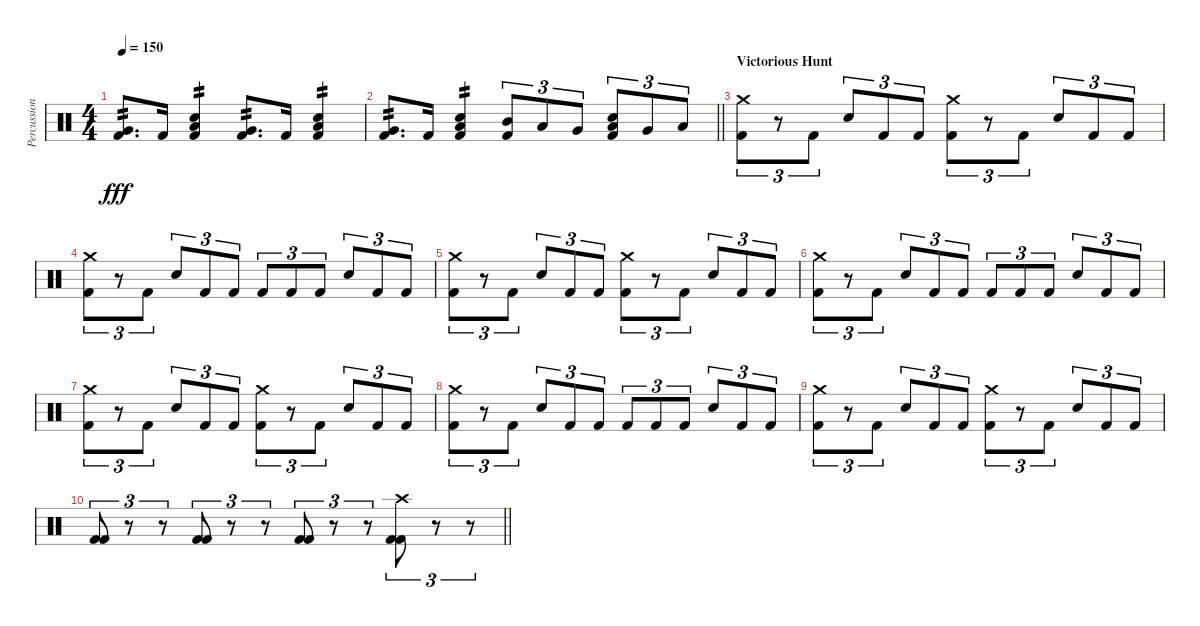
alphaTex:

\track ("Percussion" "Percussion") {instrument percussion}
\staff {score}
\articulation defaults
\ts (4 4)
\tempo 150
\clef neutral
\ks c
("Very Low Tom (hit)" "Kick (hit) 2").8{d tp 2 dy fff} "Kick (hit) 2".16 ("Low Tom (hit)" "Snare (hit) 2" "Kick (hit) 2").4{tp 2} ("Very Low Tom (hit)" "Kick (hit) 2").8{d tp 2} "Kick (hit) 2".16 ("Low Tom (hit)" "Snare (hit) 2" "Kick (hit) 2").4{tp 2} |
\barLineRight lightlight
("Very Low Tom (hit)" "Kick (hit) 2").8{d tp 2} "Kick (hit) 2".16 ("Low Tom (hit)" "Snare (hit) 2" "Kick (hit) 2").4{tp 2} ("Mid Tom (hit)" "Kick (hit) 2").8{tu (3 2)} "Low Tom (hit)".8{tu (3 2)} "Very Low Tom (hit)".8{tu (3 2)} ("Electric Snare (hit)" "Low Floor Tom (hit)" "Kick (hit) 2").8{tu (3 2)} "Very Low Tom (hit)".8{tu (3 2)} "Low Floor Tom (hit)".8{tu (3 2)} |
\section ("" "Victorious Hunt")
("Crash medium (hit)" "Kick (hit) 2").8{tu (3 2)} r.8{tu (3 2)} "Kick (hit) 2".8{tu (3 2)} "Snare (hit) 2".8{tu (3 2)} "Kick (hit) 2".8{tu (3 2)} "Kick (hit) 2".8{tu (3 2)} ("Crash medium (hit)" "Kick (hit) 2").8{tu (3 2)} r.8{tu (3 2)} "Kick (hit) 2".8{tu (3 2)} "Snare (hit) 2".8{tu (3 2)} "Kick (hit) 2".8{tu (3 2)} "Kick (hit) 2".8{tu (3 2)} |
("Crash medium (hit)" "Kick (hit) 2").8{tu (3 2)} r.8{tu (3 2)} "Kick (hit) 2".8{tu (3 2)} "Snare (hit) 2".8{tu (3 2)} "Kick (hit) 2".8{tu (3 2)} "Kick (hit) 2".8{tu (3 2)} "Kick (hit) 2".8{tu (3 2)} "Kick (hit) 2".8{tu (3 2)} "Kick (hit) 2".8{tu (3 2)} "Snare (hit) 2".8{tu (3 2)} "Kick (hit) 2".8{tu (3 2)} "Kick (hit) 2".8{tu (3 2)} |
("Crash medium (hit)" "Kick (hit) 2").8{tu (3 2)} r.8{tu (3 2)} "Kick (hit) 2".8{tu (3 2)} "Snare (hit) 2".8{tu (3 2)} "Kick (hit) 2".8{tu (3 2)} "Kick (hit) 2".8{tu (3 2)} ("Crash medium (hit)" "Kick (hit) 2").8{tu (3 2)} r.8{tu (3 2)} "Kick (hit) 2".8{tu (3 2)} "Snare (hit) 2".8{tu (3 2)} "Kick (hit) 2".8{tu (3 2)} "Kick (hit) 2".8{tu (3 2)} |
("Crash medium (hit)" "Kick (hit) 2").8{tu (3 2)} r.8{tu (3 2)} "Kick (hit) 2".8{tu (3 2)} "Snare (hit) 2".8{tu (3 2)} "Kick (hit) 2".8{tu (3 2)} "Kick (hit) 2".8{tu (3 2)} "Kick (hit) 2".8{tu (3 2)} "Kick (hit) 2".8{tu (3 2)} "Kick (hit) 2".8{tu (3 2)} "Snare (hit) 2".8{tu (3 2)} "Kick (hit) 2".8{tu (3 2)} "Kick (hit) 2".8{tu (3 2)} |
("Crash medium (hit)" "Kick (hit) 2").8{tu (3 2)} r.8{tu (3 2)} "Kick (hit) 2".8{tu (3 2)} "Snare (hit) 2".8{tu (3 2)} "Kick (hit) 2".8{tu (3 2)} "Kick (hit) 2".8{tu (3 2)} ("Crash medium (hit)" "Kick (hit) 2").8{tu (3 2)} r.8{tu (3 2)} "Kick (hit) 2".8{tu (3 2)} "Snare (hit) 2".8{tu (3 2)} "Kick (hit) 2".8{tu (3 2)} "Kick (hit) 2".8{tu (3 2)} |
("Crash medium (hit)" "Kick (hit) 2").8{tu (3 2)} r.8{tu (3 2)} "Kick (hit) 2".8{tu (3 2)} "Snare (hit) 2".8{tu (3 2)} "Kick (hit) 2".8{tu (3 2)} "Kick (hit) 2".8{tu (3 2)} "Kick (hit) 2".8{tu (3 2)} "Kick (hit) 2".8{tu (3 2)} "Kick (hit) 2".8{tu (3 2)} "Snare (hit) 2".8{tu (3 2)} "Kick (hit) 2".8{tu (3 2)} "Kick (hit) 2".8{tu (3 2)} |
("Crash medium (hit)" "Kick (hit) 2").8{tu (3 2)} r.8{tu (3 2)} "Kick (hit) 2".8{tu (3 2)} "Snare (hit) 2".8{tu (3 2)} "Kick (hit) 2".8{tu (3 2)} "Kick (hit) 2".8{tu (3 2)} ("Crash medium (hit)" "Kick (hit) 2").8{tu (3 2)} r.8{tu (3 2)} "Kick (hit) 2".8{tu (3 2)} "Snare (hit) 2".8{tu (3 2)} "Kick (hit) 2".8{tu (3 2)} "Kick (hit) 2".8{tu (3 2)} |
\barLineRight lightlight
("Kick (hit) 2" "Kick (hit) 2").8{tu (3 2)} r.8{tu (3 2)} r.8{tu (3 2)} ("Kick (hit) 2" "Kick (hit) 2").8{tu (3 2)} r.8{tu (3 2)} r.8{tu (3 2)} ("Kick (hit) 2" "Kick (hit) 2").8{tu (3 2)} r.8{tu (3 2)} r.8{tu (3 2)} ("Crash high (hit)" "Kick (hit) 2" "Kick (hit) 2").8{tu (3 2)} r.8{tu (3 2)} r.8{tu (3 2)}
